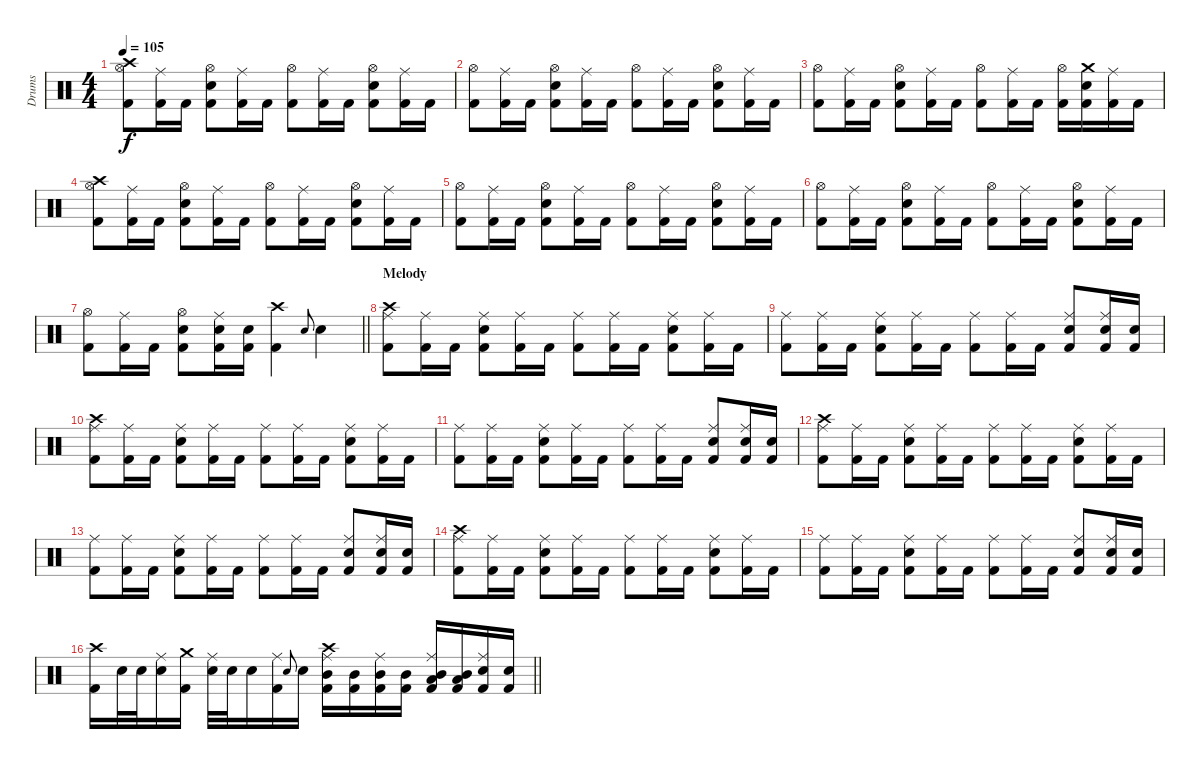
\track ("Drums" "Drums") {instrument percussion}
\staff {score}
\articulation defaults
\ts (4 4)
\tempo 105
\clef neutral
\ks c
("Crash high (hit)" "Hi-Hat (open)" "Kick (hit) 2").8{dy f} ("Ride (middle)" "Kick (hit) 2").16 "Kick (hit) 2".16 ("Hi-Hat (open)" "Snare (hit) 2" "Kick (hit) 2").8 ("Ride (middle)" "Kick (hit) 2").16 "Kick (hit) 2".16 ("Hi-Hat (open)" "Kick (hit) 2").8 ("Ride (middle)" "Kick (hit) 2").16 "Kick (hit) 2".16 ("Hi-Hat (open)" "Snare (hit) 2" "Kick (hit) 2").8 ("Ride (middle)" "Kick (hit) 2").16 "Kick (hit) 2".16 |
("Hi-Hat (open)" "Kick (hit) 2").8 ("Ride (middle)" "Kick (hit) 2").16 "Kick (hit) 2".16 ("Hi-Hat (open)" "Snare (hit) 2" "Kick (hit) 2").8 ("Ride (middle)" "Kick (hit) 2").16 "Kick (hit) 2".16 ("Hi-Hat (open)" "Kick (hit) 2").8 ("Ride (middle)" "Kick (hit) 2").16 "Kick (hit) 2".16 ("Hi-Hat (open)" "Snare (hit) 2" "Kick (hit) 2").8 ("Ride (middle)" "Kick (hit) 2").16 "Kick (hit) 2".16 |
("Hi-Hat (open)" "Kick (hit) 2").8 ("Ride (middle)" "Kick (hit) 2").16 "Kick (hit) 2".16 ("Hi-Hat (open)" "Snare (hit) 2" "Kick (hit) 2").8 ("Ride (middle)" "Kick (hit) 2").16 "Kick (hit) 2".16 ("Hi-Hat (open)" "Kick (hit) 2").8 ("Ride (middle)" "Kick (hit) 2").16 "Kick (hit) 2".16 ("Hi-Hat (open)" "Kick (hit) 2").16 ("Crash medium (hit)" "Snare (hit) 2" "Kick (hit) 2").16 ("Ride (middle)" "Kick (hit) 2").16 "Kick (hit) 2".16 |
("Crash high (hit)" "Hi-Hat (open)" "Kick (hit) 2").8 ("Ride (middle)" "Kick (hit) 2").16 "Kick (hit) 2".16 ("Hi-Hat (open)" "Snare (hit) 2" "Kick (hit) 2").8 ("Ride (middle)" "Kick (hit) 2").16 "Kick (hit) 2".16 ("Hi-Hat (open)" "Kick (hit) 2").8 ("Ride (middle)" "Kick (hit) 2").16 "Kick (hit) 2".16 ("Hi-Hat (open)" "Snare (hit) 2" "Kick (hit) 2").8 ("Ride (middle)" "Kick (hit) 2").16 "Kick (hit) 2".16 |
("Hi-Hat (open)" "Kick (hit) 2").8 ("Ride (middle)" "Kick (hit) 2").16 "Kick (hit) 2".16 ("Hi-Hat (open)" "Snare (hit) 2" "Kick (hit) 2").8 ("Ride (middle)" "Kick (hit) 2").16 "Kick (hit) 2".16 ("Hi-Hat (open)" "Kick (hit) 2").8 ("Ride (middle)" "Kick (hit) 2").16 "Kick (hit) 2".16 ("Hi-Hat (open)" "Snare (hit) 2" "Kick (hit) 2").8 ("Ride (middle)" "Kick (hit) 2").16 "Kick (hit) 2".16 |
("Hi-Hat (open)" "Kick (hit) 2").8 ("Ride (middle)" "Kick (hit) 2").16 "Kick (hit) 2".16 ("Hi-Hat (open)" "Snare (hit) 2" "Kick (hit) 2").8 ("Ride (middle)" "Kick (hit) 2").16 "Kick (hit) 2".16 ("Hi-Hat (open)" "Kick (hit) 2").8 ("Ride (middle)" "Kick (hit) 2").16 "Kick (hit) 2".16 ("Hi-Hat (open)" "Snare (hit) 2" "Kick (hit) 2").8 ("Ride (middle)" "Kick (hit) 2").16 "Kick (hit) 2".16 |
\barLineRight lightlight
("Hi-Hat (open)" "Kick (hit) 2").8 ("Ride (middle)" "Kick (hit) 2").16 "Kick (hit) 2".16 ("Hi-Hat (open)" "Snare (hit) 2" "Kick (hit) 2").8 ("Ride (middle)" "Snare (hit) 2" "Kick (hit) 2").16 ("Snare (hit) 2" "Kick (hit) 2").16 ("Crash high (hit)" "Kick (hit) 2").4 "Snare (hit) 2".8{gr onbeat} "Snare (hit) 2".4 |
\section ("" "Melody")
("Crash high (hit)" "Ride (middle)" "Kick (hit) 2").8 ("Ride (middle)" "Kick (hit) 2").16 "Kick (hit) 2".16 ("Ride (middle)" "Snare (hit) 2" "Kick (hit) 2").8 ("Ride (middle)" "Kick (hit) 2").16 "Kick (hit) 2".16 ("Ride (middle)" "Kick (hit) 2").8 ("Ride (middle)" "Kick (hit) 2").16 "Kick (hit) 2".16 ("Ride (middle)" "Snare (hit) 2" "Kick (hit) 2").8 ("Ride (middle)" "Kick (hit) 2").16 "Kick (hit) 2".16 |
("Ride (middle)" "Kick (hit) 2").8 ("Ride (middle)" "Kick (hit) 2").16 "Kick (hit) 2".16 ("Ride (middle)" "Snare (hit) 2" "Kick (hit) 2").8 ("Ride (middle)" "Kick (hit) 2").16 "Kick (hit) 2".16 ("Ride (middle)" "Kick (hit) 2").8 ("Ride (middle)" "Kick (hit) 2").16 "Kick (hit) 2".16 ("Ride (middle)" "Snare (hit) 2" "Kick (hit) 2").8 ("Ride (middle)" "Snare (hit) 2" "Kick (hit) 2").16 ("Snare (hit) 2" "Kick (hit) 2").16 |
("Crash high (hit)" "Ride (middle)" "Kick (hit) 2").8 ("Ride (middle)" "Kick (hit) 2").16 "Kick (hit) 2".16 ("Ride (middle)" "Snare (hit) 2" "Kick (hit) 2").8 ("Ride (middle)" "Kick (hit) 2").16 "Kick (hit) 2".16 ("Ride (middle)" "Kick (hit) 2").8 ("Ride (middle)" "Kick (hit) 2").16 "Kick (hit) 2".16 ("Ride (middle)" "Snare (hit) 2" "Kick (hit) 2").8 ("Ride (middle)" "Kick (hit) 2").16 "Kick (hit) 2".16 |
("Ride (middle)" "Kick (hit) 2").8 ("Ride (middle)" "Kick (hit) 2").16 "Kick (hit) 2".16 ("Ride (middle)" "Snare (hit) 2" "Kick (hit) 2").8 ("Ride (middle)" "Kick (hit) 2").16 "Kick (hit) 2".16 ("Ride (middle)" "Kick (hit) 2").8 ("Ride (middle)" "Kick (hit) 2").16 "Kick (hit) 2".16 ("Ride (middle)" "Snare (hit) 2" "Kick (hit) 2").8 ("Ride (middle)" "Snare (hit) 2" "Kick (hit) 2").16 ("Snare (hit) 2" "Kick (hit) 2").16 |
("Crash high (hit)" "Ride (middle)" "Kick (hit) 2").8 ("Ride (middle)" "Kick (hit) 2").16 "Kick (hit) 2".16 ("Ride (middle)" "Snare (hit) 2" "Kick (hit) 2").8 ("Ride (middle)" "Kick (hit) 2").16 "Kick (hit) 2".16 ("Ride (middle)" "Kick (hit) 2").8 ("Ride (middle)" "Kick (hit) 2").16 "Kick (hit) 2".16 ("Ride (middle)" "Snare (hit) 2" "Kick (hit) 2").8 ("Ride (middle)" "Kick (hit) 2").16 "Kick (hit) 2".16 |
("Ride (middle)" "Kick (hit) 2").8 ("Ride (middle)" "Kick (hit) 2").16 "Kick (hit) 2".16 ("Ride (middle)" "Snare (hit) 2" "Kick (hit) 2").8 ("Ride (middle)" "Kick (hit) 2").16 "Kick (hit) 2".16 ("Ride (middle)" "Kick (hit) 2").8 ("Ride (middle)" "Kick (hit) 2").16 "Kick (hit) 2".16 ("Ride (middle)" "Snare (hit) 2" "Kick (hit) 2").8 ("Ride (middle)" "Snare (hit) 2" "Kick (hit) 2").16 ("Snare (hit) 2" "Kick (hit) 2").16 |
("Crash high (hit)" "Ride (middle)" "Kick (hit) 2").8 ("Ride (middle)" "Kick (hit) 2").16 "Kick (hit) 2".16 ("Ride (middle)" "Snare (hit) 2" "Kick (hit) 2").8 ("Ride (middle)" "Kick (hit) 2").16 "Kick (hit) 2".16 ("Ride (middle)" "Kick (hit) 2").8 ("Ride (middle)" "Kick (hit) 2").16 "Kick (hit) 2".16 ("Ride (middle)" "Snare (hit) 2" "Kick (hit) 2").8 ("Ride (middle)" "Kick (hit) 2").16 "Kick (hit) 2".16 |
("Ride (middle)" "Kick (hit) 2").8 ("Ride (middle)" "Kick (hit) 2").16 "Kick (hit) 2".16 ("Ride (middle)" "Snare (hit) 2" "Kick (hit) 2").8 ("Ride (middle)" "Kick (hit) 2").16 "Kick (hit) 2".16 ("Ride (middle)" "Kick (hit) 2").8 ("Ride (middle)" "Kick (hit) 2").16 "Kick (hit) 2".16 ("Ride (middle)" "Snare (hit) 2" "Kick (hit) 2").8 ("Ride (middle)" "Snare (hit) 2" "Kick (hit) 2").16 ("Snare (hit) 2" "Kick (hit) 2").16 |
\barLineRight lightlight
("Crash high (hit)" "Kick (hit) 2").16 "Snare (hit) 2".32 "Snare (hit) 2".32 ("Ride (middle)" "Snare (hit) 2").16 ("Crash medium (hit)" "Kick (hit) 2").16 ("Ride (middle)" "Snare (hit) 2").32 "Snare (hit) 2".32 "Snare (hit) 2".16 ("Ride (middle)" "Kick (hit) 2").16 "Snare (hit) 2".8{gr onbeat} "Snare (hit) 2".16 ("Crash high (hit)" "Ride (middle)" "Mid Tom (hit)" "Kick (hit) 2").16 ("Mid Tom (hit)" "Kick (hit) 2").16 ("Ride (middle)" "Mid Tom (hit)" "Kick (hit) 2").16 ("Mid Tom (hit)" "Kick (hit) 2").16 ("Ride (middle)" "Low Tom (hit)" "Mid Tom (hit)" "Kick (hit) 2").16 ("Low Tom (hit)" "Mid Tom (hit)" "Kick (hit) 2").16 ("Ride (middle)" "Snare (hit) 2" "Kick (hit) 2").16 ("Snare (hit) 2" "Kick (hit) 2").16
